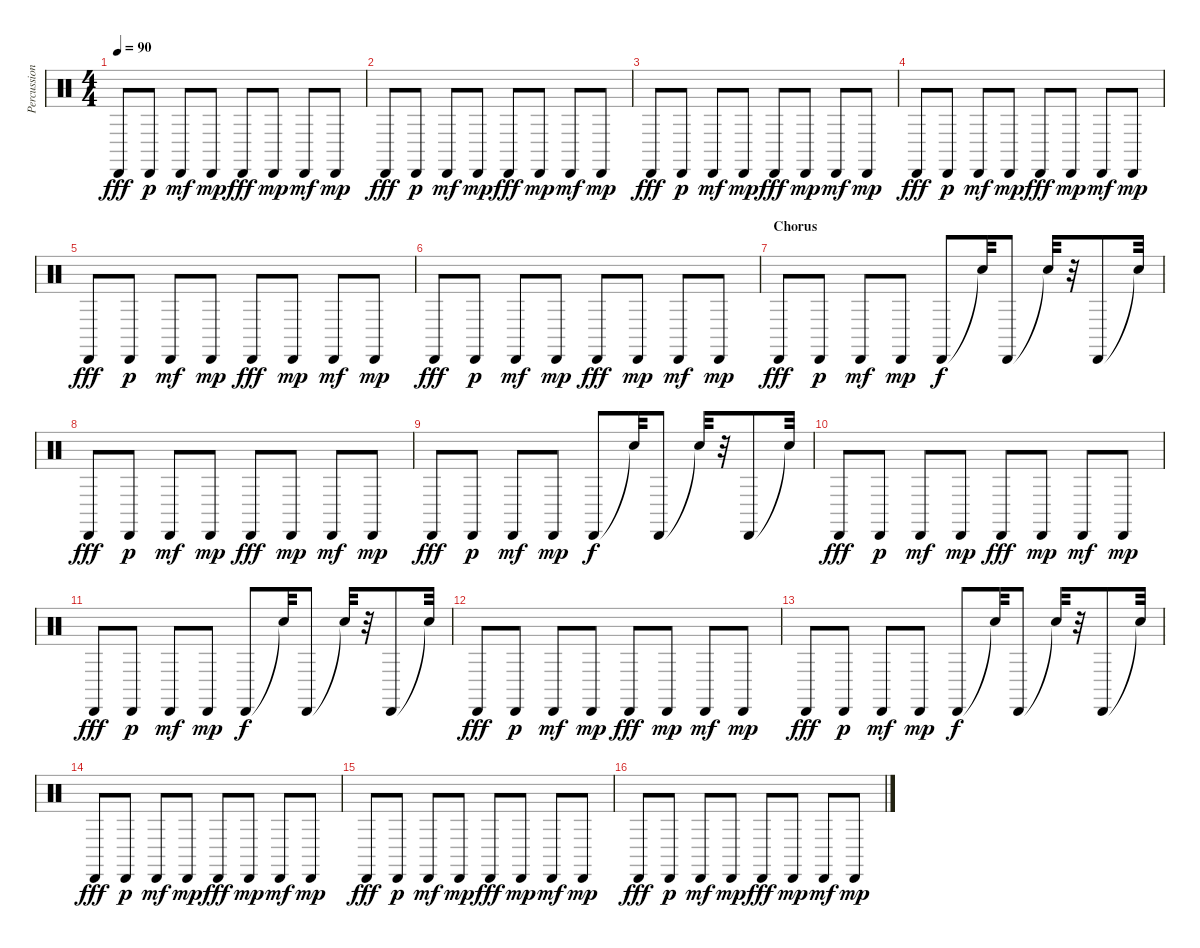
\track ("Percussion" "Percussion") {instrument percussion}
\staff {score}
\articulation defaults
\ts (4 4)
\tempo 90
\clef neutral
\ks c "Cabasa (hit)".8{dy fff} "Cabasa (hit)".8{dy p} "Cabasa (hit)".8{dy mf} "Cabasa (hit)".8{dy mp} "Cabasa (hit)".8{dy fff} "Cabasa (hit)".8{dy mp} "Cabasa (hit)".8{dy mf} "Cabasa (hit)".8{dy mp}
|
"Cabasa (hit)".8{dy fff} "Cabasa (hit)".8{dy p} "Cabasa (hit)".8{dy mf} "Cabasa (hit)".8{dy mp} "Cabasa (hit)".8{dy fff} "Cabasa (hit)".8{dy mp} "Cabasa (hit)".8{dy mf} "Cabasa (hit)".8{dy mp} |
"Cabasa (hit)".8{dy fff} "Cabasa (hit)".8{dy p} "Cabasa (hit)".8{dy mf} "Cabasa (hit)".8{dy mp} "Cabasa (hit)".8{dy fff} "Cabasa (hit)".8{dy mp} "Cabasa (hit)".8{dy mf} "Cabasa (hit)".8{dy mp} |
"Cabasa (hit)".8{dy fff} "Cabasa (hit)".8{dy p} "Cabasa (hit)".8{dy mf} "Cabasa (hit)".8{dy mp} "Cabasa (hit)".8{dy fff} "Cabasa (hit)".8{dy mp} "Cabasa (hit)".8{dy mf} "Cabasa (hit)".8{dy mp} |
"Cabasa (hit)".8{dy fff} "Cabasa (hit)".8{dy p} "Cabasa (hit)".8{dy mf} "Cabasa (hit)".8{dy mp} "Cabasa (hit)".8{dy fff} "Cabasa (hit)".8{dy mp} "Cabasa (hit)".8{dy mf} "Cabasa (hit)".8{dy mp} |
"Cabasa (hit)".8{dy fff} "Cabasa (hit)".8{dy p} "Cabasa (hit)".8{dy mf} "Cabasa (hit)".8{dy mp} "Cabasa (hit)".8{dy fff} "Cabasa (hit)".8{dy mp} "Cabasa (hit)".8{dy mf} "Cabasa (hit)".8{dy mp} |
\section ("" "Chorus")
"Cabasa (hit)".8{dy fff} "Cabasa (hit)".8{dy p} "Cabasa (hit)".8{dy mf} "Cabasa (hit)".8{dy mp} "Cabasa (hit)".8{dy f} "Snare (hit)"{t}.32 "Cabasa (hit)".8 "Snare (hit)"{t}.32 r.32 "Cabasa (hit)".8 "Snare (hit)"{t}.32 |
"Cabasa (hit)".8{dy fff} "Cabasa (hit)".8{dy p} "Cabasa (hit)".8{dy mf} "Cabasa (hit)".8{dy mp} "Cabasa (hit)".8{dy fff} "Cabasa (hit)".8{dy mp} "Cabasa (hit)".8{dy mf} "Cabasa (hit)".8{dy mp} |
"Cabasa (hit)".8{dy fff} "Cabasa (hit)".8{dy p} "Cabasa (hit)".8{dy mf} "Cabasa (hit)".8{dy mp} "Cabasa (hit)".8{dy f} "Snare (hit)"{t}.32 "Cabasa (hit)".8 "Snare (hit)"{t}.32 r.32 "Cabasa (hit)".8 "Snare (hit)"{t}.32 |
"Cabasa (hit)".8{dy fff} "Cabasa (hit)".8{dy p} "Cabasa (hit)".8{dy mf} "Cabasa (hit)".8{dy mp} "Cabasa (hit)".8{dy fff} "Cabasa (hit)".8{dy mp} "Cabasa (hit)".8{dy mf} "Cabasa (hit)".8{dy mp} |
"Cabasa (hit)".8{dy fff} "Cabasa (hit)".8{dy p} "Cabasa (hit)".8{dy mf} "Cabasa (hit)".8{dy mp} "Cabasa (hit)".8{dy f} "Snare (hit)"{t}.32 "Cabasa (hit)".8 "Snare (hit)"{t}.32 r.32 "Cabasa (hit)".8 "Snare (hit)"{t}.32 |
"Cabasa (hit)".8{dy fff} "Cabasa (hit)".8{dy p} "Cabasa (hit)".8{dy mf} "Cabasa (hit)".8{dy mp} "Cabasa (hit)".8{dy fff} "Cabasa (hit)".8{dy mp} "Cabasa (hit)".8{dy mf} "Cabasa (hit)".8{dy mp} |
"Cabasa (hit)".8{dy fff} "Cabasa (hit)".8{dy p} "Cabasa (hit)".8{dy mf} "Cabasa (hit)".8{dy mp} "Cabasa (hit)".8{dy f} "Snare (hit)"{t}.32 "Cabasa (hit)".8 "Snare (hit)"{t}.32 r.32 "Cabasa (hit)".8 "Snare (hit)"{t}.32 |
"Cabasa (hit)".8{dy fff} "Cabasa (hit)".8{dy p} "Cabasa (hit)".8{dy mf} "Cabasa (hit)".8{dy mp} "Cabasa (hit)".8{dy fff} "Cabasa (hit)".8{dy mp} "Cabasa (hit)".8{dy mf} "Cabasa (hit)".8{dy mp} |
"Cabasa (hit)".8{dy fff} "Cabasa (hit)".8{dy p} "Cabasa (hit)".8{dy mf} "Cabasa (hit)".8{dy mp} "Cabasa (hit)".8{dy fff} "Cabasa (hit)".8{dy mp} "Cabasa (hit)".8{dy mf} "Cabasa (hit)".8{dy mp} |
"Cabasa (hit)".8{dy fff} "Cabasa (hit)".8{dy p} "Cabasa (hit)".8{dy mf} "Cabasa (hit)".8{dy mp} "Cabasa (hit)".8{dy fff} "Cabasa (hit)".8{dy mp} "Cabasa (hit)".8{dy mf} "Cabasa (hit)".8{dy mp}
